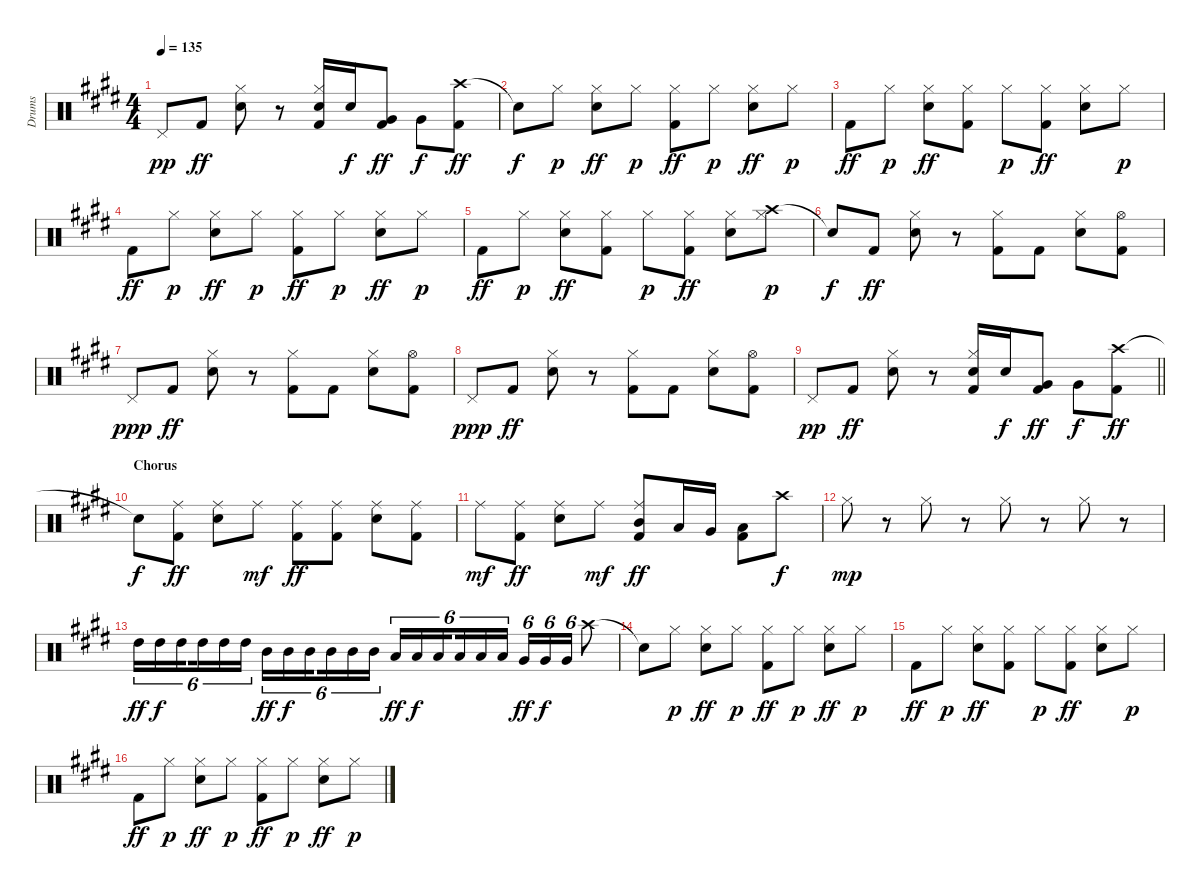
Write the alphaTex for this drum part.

\track ("Drums" "Drums") {instrument percussion}
\staff {score}
\articulation defaults
\ts (4 4)
\tempo 135
\clef neutral
\ks e "Pedal Hi-Hat (hit)".8{dy pp} "Kick (hit) 2".8{dy ff}
("Hi-Hat (closed)" "Snare (hit) 2").8 r.8 ("Hi-Hat (closed)" "Snare (hit) 2" "Kick (hit) 2").16 "Snare (hit) 2".16{dy f} ("Very Low Tom (hit)" "Kick (hit) 2").8{dy ff} "Very Low Tom (hit)".8{dy f} ("Crash high (hit)" "Kick (hit) 2").8{dy ff} |
"Snare (hit)"{t}.8{dy f} "Hi-Hat (closed)".8{dy p} ("Hi-Hat (closed)" "Snare (hit) 2").8{dy ff} "Hi-Hat (closed)".8{dy p} ("Hi-Hat (closed)" "Kick (hit) 2").8{dy ff} "Hi-Hat (closed)".8{dy p} ("Hi-Hat (closed)" "Snare (hit) 2").8{dy ff} "Hi-Hat (closed)".8{dy p} |
"Kick (hit) 2".8{dy ff} "Hi-Hat (closed)".8{dy p} ("Hi-Hat (closed)" "Snare (hit) 2").8{dy ff} ("Hi-Hat (closed)" "Kick (hit) 2").8 "Hi-Hat (closed)".8{dy p} ("Hi-Hat (closed)" "Kick (hit) 2").8{dy ff} ("Hi-Hat (closed)" "Snare (hit) 2").8 "Hi-Hat (closed)".8{dy p} |
"Kick (hit) 2".8{dy ff} "Hi-Hat (closed)".8{dy p} ("Hi-Hat (closed)" "Snare (hit) 2").8{dy ff} "Hi-Hat (closed)".8{dy p} ("Hi-Hat (closed)" "Kick (hit) 2").8{dy ff} "Hi-Hat (closed)".8{dy p} ("Hi-Hat (closed)" "Snare (hit) 2").8{dy ff} "Hi-Hat (closed)".8{dy p} |
"Kick (hit) 2".8{dy ff} "Hi-Hat (closed)".8{dy p} ("Hi-Hat (closed)" "Snare (hit) 2").8{dy ff} ("Hi-Hat (closed)" "Kick (hit) 2").8 "Hi-Hat (closed)".8{dy p} ("Hi-Hat (closed)" "Kick (hit) 2").8{dy ff} ("Hi-Hat (closed)" "Snare (hit) 2").8 ("Crash high (hit)" "Hi-Hat (closed)").8{dy p} |
"Snare (hit)"{t}.8{dy f} "Kick (hit) 2".8{dy ff} ("Hi-Hat (closed)" "Snare (hit) 2").8 r.8 ("Hi-Hat (closed)" "Kick (hit) 2").8 "Kick (hit) 2".8 ("Hi-Hat (closed)" "Snare (hit) 2").8 ("Hi-Hat (open)" "Kick (hit) 2").8 |
"Pedal Hi-Hat (hit)".8{dy ppp} "Kick (hit) 2".8{dy ff} ("Hi-Hat (closed)" "Snare (hit) 2").8 r.8 ("Hi-Hat (closed)" "Kick (hit) 2").8 "Kick (hit) 2".8 ("Hi-Hat (closed)" "Snare (hit) 2").8 ("Hi-Hat (open)" "Kick (hit) 2").8 |
"Pedal Hi-Hat (hit)".8{dy ppp} "Kick (hit) 2".8{dy ff} ("Hi-Hat (closed)" "Snare (hit) 2").8 r.8 ("Hi-Hat (closed)" "Kick (hit) 2").8 "Kick (hit) 2".8 ("Hi-Hat (closed)" "Snare (hit) 2").8 ("Hi-Hat (open)" "Kick (hit) 2").8 |
\barLineRight lightlight "Pedal Hi-Hat (hit)".8{dy pp} "Kick (hit) 2".8{dy ff}
("Hi-Hat (closed)" "Snare (hit) 2").8 r.8 ("Hi-Hat (closed)" "Snare (hit) 2" "Kick (hit) 2").16 "Snare (hit) 2".16{dy f} ("Very Low Tom (hit)" "Kick (hit) 2").8{dy ff} "Very Low Tom (hit)".8{dy f} ("Crash high (hit)" "Kick (hit) 2").8{dy ff} |
\section ("" "Chorus")
"Snare (hit)"{t}.8{dy f} ("Ride (middle)" "Kick (hit) 2").8{dy ff} ("Ride (middle)" "Snare (hit) 2").8 "Ride (middle)".8{dy mf} ("Ride (middle)" "Kick (hit) 2").8{dy ff} ("Ride (middle)" "Kick (hit) 2").8 ("Ride (middle)" "Snare (hit) 2").8 ("Ride (middle)" "Kick (hit) 2").8 |
"Ride (middle)".8{dy mf} ("Ride (middle)" "Kick (hit) 2").8{dy ff} ("Ride (middle)" "Snare (hit) 2").8 "Ride (middle)".8{dy mf} ("Ride (middle)" "Mid Tom (hit)" "Kick (hit) 2").8{dy ff} "Low Tom (hit)".16 "Very Low Tom (hit)".16 ("Low Floor Tom (hit)" "Kick (hit) 2").8 "Crash high (hit)".8{dy f} |
"Hi-Hat (closed)".8{dy mp} r.8 "Hi-Hat (closed)".8 r.8 "Hi-Hat (closed)".8 r.8 "Hi-Hat (closed)".8 r.8 |
"High Tom (hit)".16{tu (6 4) dy ff} "High Tom (hit)".16{tu (6 4) dy f} "High Tom (hit)".16{tu (6 4) beam splitsecondary} "High Tom (hit)".16{tu (6 4)} "High Tom (hit)".16{tu (6 4)} "High Tom (hit)".16{tu (6 4)} "Mid Tom (hit)".16{tu (6 4) dy ff} "Mid Tom (hit)".16{tu (6 4) dy f} "Mid Tom (hit)".16{tu (6 4) beam splitsecondary} "Mid Tom (hit)".16{tu (6 4)} "Mid Tom (hit)".16{tu (6 4)} "Mid Tom (hit)".16{tu (6 4)} "Low Tom (hit)".16{tu (6 4) dy ff} "Low Tom (hit)".16{tu (6 4) dy f} "Low Tom (hit)".16{tu (6 4) beam splitsecondary} "Low Tom (hit)".16{tu (6 4)} "Low Tom (hit)".16{tu (6 4)} "Low Tom (hit)".16{tu (6 4)} "Very Low Tom (hit)".16{tu (6 4) dy ff} "Very Low Tom (hit)".16{tu (6 4) dy f} "Very Low Tom (hit)".16{tu (6 4)} "Crash high (hit)".8 |
"Snare (hit)"{t}.8 "Hi-Hat (closed)".8{dy p} ("Hi-Hat (closed)" "Snare (hit) 2").8{dy ff} "Hi-Hat (closed)".8{dy p} ("Hi-Hat (closed)" "Kick (hit) 2").8{dy ff} "Hi-Hat (closed)".8{dy p} ("Hi-Hat (closed)" "Snare (hit) 2").8{dy ff} "Hi-Hat (closed)".8{dy p} |
"Kick (hit) 2".8{dy ff} "Hi-Hat (closed)".8{dy p} ("Hi-Hat (closed)" "Snare (hit) 2").8{dy ff} ("Hi-Hat (closed)" "Kick (hit) 2").8 "Hi-Hat (closed)".8{dy p} ("Hi-Hat (closed)" "Kick (hit) 2").8{dy ff} ("Hi-Hat (closed)" "Snare (hit) 2").8 "Hi-Hat (closed)".8{dy p} |
"Kick (hit) 2".8{dy ff} "Hi-Hat (closed)".8{dy p} ("Hi-Hat (closed)" "Snare (hit) 2").8{dy ff} "Hi-Hat (closed)".8{dy p} ("Hi-Hat (closed)" "Kick (hit) 2").8{dy ff} "Hi-Hat (closed)".8{dy p} ("Hi-Hat (closed)" "Snare (hit) 2").8{dy ff} "Hi-Hat (closed)".8{dy p}
